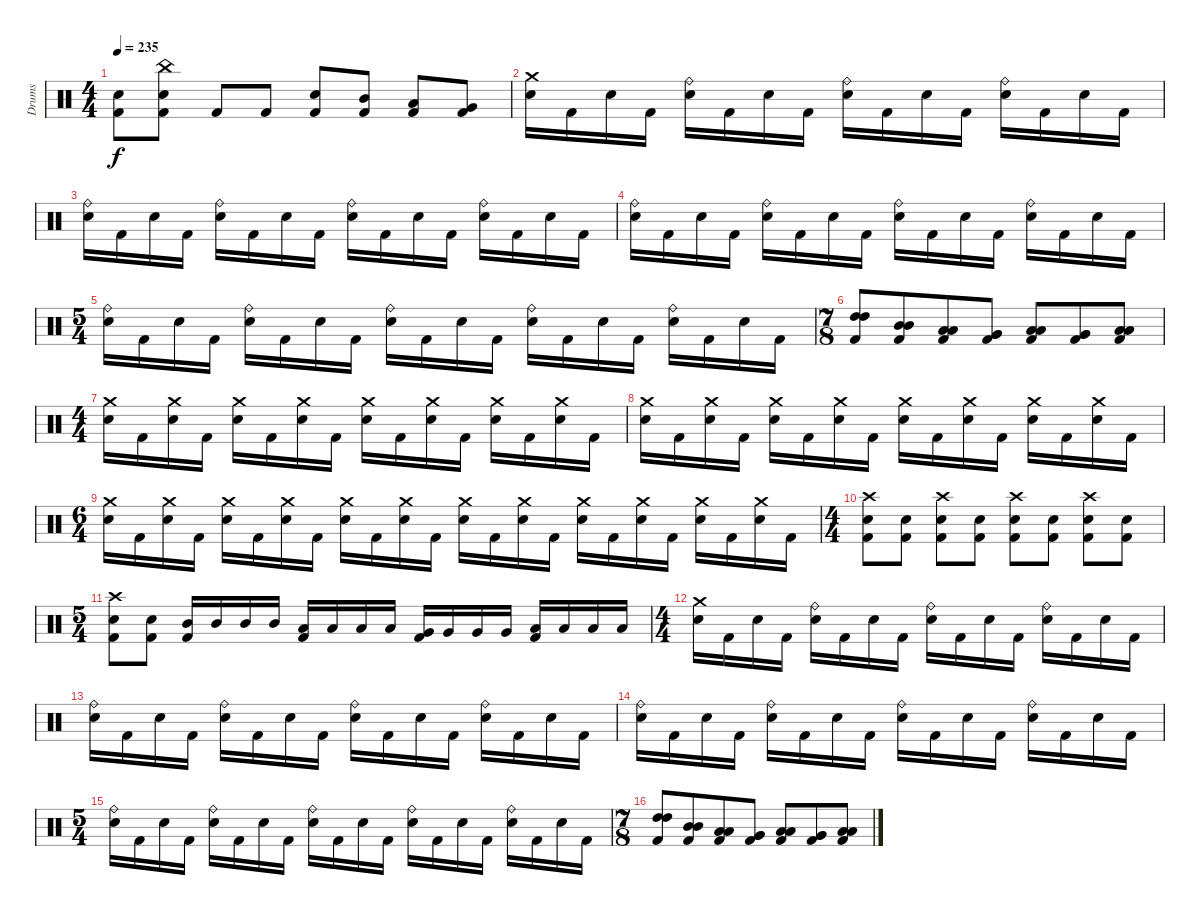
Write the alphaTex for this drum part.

\track ("Drums" "Drums") {instrument percussion}
\staff {score}
\articulation defaults
\ts (4 4)
\tempo 235
\clef neutral
\ks c
("Electric Snare (hit)" "Kick (hit) 2").8{dy f} ("China (hit)" "Electric Snare (hit)" "Kick (hit) 2").8 "Kick (hit) 2".8 "Kick (hit) 2".8 ("Electric Snare (hit)" "Kick (hit) 2").8 ("Mid Tom (hit)" "Kick (hit) 2").8 ("Low Tom (hit)" "Kick (hit) 2").8 ("Very Low Tom (hit)" "Kick (hit) 2").8 |
("Crash medium (hit)" "Electric Snare (hit)").16 "Kick (hit) 2".16 "Electric Snare (hit)".16 "Kick (hit) 2".16 ("Ride (bell)" "Electric Snare (hit)").16 "Kick (hit) 2".16 "Electric Snare (hit)".16 "Kick (hit) 2".16 ("Ride (bell)" "Electric Snare (hit)").16 "Kick (hit) 2".16 "Electric Snare (hit)".16 "Kick (hit) 2".16 ("Ride (bell)" "Electric Snare (hit)").16 "Kick (hit) 2".16 "Electric Snare (hit)".16 "Kick (hit) 2".16 |
("Ride (bell)" "Electric Snare (hit)").16 "Kick (hit) 2".16 "Electric Snare (hit)".16 "Kick (hit) 2".16 ("Ride (bell)" "Electric Snare (hit)").16 "Kick (hit) 2".16 "Electric Snare (hit)".16 "Kick (hit) 2".16 ("Ride (bell)" "Electric Snare (hit)").16 "Kick (hit) 2".16 "Electric Snare (hit)".16 "Kick (hit) 2".16 ("Ride (bell)" "Electric Snare (hit)").16 "Kick (hit) 2".16 "Electric Snare (hit)".16 "Kick (hit) 2".16 |
("Ride (bell)" "Electric Snare (hit)").16 "Kick (hit) 2".16 "Electric Snare (hit)".16 "Kick (hit) 2".16 ("Ride (bell)" "Electric Snare (hit)").16 "Kick (hit) 2".16 "Electric Snare (hit)".16 "Kick (hit) 2".16 ("Ride (bell)" "Electric Snare (hit)").16 "Kick (hit) 2".16 "Electric Snare (hit)".16 "Kick (hit) 2".16 ("Ride (bell)" "Electric Snare (hit)").16 "Kick (hit) 2".16 "Electric Snare (hit)".16 "Kick (hit) 2".16 |
\ts (5 4)
("Ride (bell)" "Electric Snare (hit)").16 "Kick (hit) 2".16 "Electric Snare (hit)".16 "Kick (hit) 2".16 ("Ride (bell)" "Electric Snare (hit)").16 "Kick (hit) 2".16 "Electric Snare (hit)".16 "Kick (hit) 2".16 ("Ride (bell)" "Electric Snare (hit)").16 "Kick (hit) 2".16 "Electric Snare (hit)".16 "Kick (hit) 2".16 ("Ride (bell)" "Electric Snare (hit)").16 "Kick (hit) 2".16 "Electric Snare (hit)".16 "Kick (hit) 2".16 ("Ride (bell)" "Electric Snare (hit)").16 "Kick (hit) 2".16 "Electric Snare (hit)".16 "Kick (hit) 2".16 |
\ts (7 8)
("High Tom (hit)" "High Tom (hit)" "Kick (hit) 2").8 ("Mid Tom (hit)" "Mid Tom (hit)" "Kick (hit) 2").8 ("Low Tom (hit)" "Low Tom (hit)" "Kick (hit) 2").8 ("Very Low Tom (hit)" "Very Low Tom (hit)" "Kick (hit) 2").8 ("Low Tom (hit)" "Low Tom (hit)" "Kick (hit) 2").8 ("Very Low Tom (hit)" "Very Low Tom (hit)" "Kick (hit) 2").8 ("Low Floor Tom (hit)" "Low Floor Tom (hit)" "Kick (hit) 2").8 |
\ts (4 4)
("Crash medium (hit)" "Electric Snare (hit)").16 "Kick (hit) 2".16 ("Crash medium (hit)" "Electric Snare (hit)").16 "Kick (hit) 2".16 ("Crash medium (hit)" "Electric Snare (hit)").16 "Kick (hit) 2".16 ("Crash medium (hit)" "Electric Snare (hit)").16 "Kick (hit) 2".16 ("Crash medium (hit)" "Electric Snare (hit)").16 "Kick (hit) 2".16 ("Crash medium (hit)" "Electric Snare (hit)").16 "Kick (hit) 2".16 ("Crash medium (hit)" "Electric Snare (hit)").16 "Kick (hit) 2".16 ("Crash medium (hit)" "Electric Snare (hit)").16 "Kick (hit) 2".16 |
("Crash medium (hit)" "Electric Snare (hit)").16 "Kick (hit) 2".16 ("Crash medium (hit)" "Electric Snare (hit)").16 "Kick (hit) 2".16 ("Crash medium (hit)" "Electric Snare (hit)").16 "Kick (hit) 2".16 ("Crash medium (hit)" "Electric Snare (hit)").16 "Kick (hit) 2".16 ("Crash medium (hit)" "Electric Snare (hit)").16 "Kick (hit) 2".16 ("Crash medium (hit)" "Electric Snare (hit)").16 "Kick (hit) 2".16 ("Crash medium (hit)" "Electric Snare (hit)").16 "Kick (hit) 2".16 ("Crash medium (hit)" "Electric Snare (hit)").16 "Kick (hit) 2".16 |
\ts (6 4)
("Crash medium (hit)" "Electric Snare (hit)").16 "Kick (hit) 2".16 ("Crash medium (hit)" "Electric Snare (hit)").16 "Kick (hit) 2".16 ("Crash medium (hit)" "Electric Snare (hit)").16 "Kick (hit) 2".16 ("Crash medium (hit)" "Electric Snare (hit)").16 "Kick (hit) 2".16 ("Crash medium (hit)" "Electric Snare (hit)").16 "Kick (hit) 2".16 ("Crash medium (hit)" "Electric Snare (hit)").16 "Kick (hit) 2".16 ("Crash medium (hit)" "Electric Snare (hit)").16 "Kick (hit) 2".16 ("Crash medium (hit)" "Electric Snare (hit)").16 "Kick (hit) 2".16 ("Crash medium (hit)" "Electric Snare (hit)").16 "Kick (hit) 2".16 ("Crash medium (hit)" "Electric Snare (hit)").16 "Kick (hit) 2".16 ("Crash medium (hit)" "Electric Snare (hit)").16 "Kick (hit) 2".16 ("Crash medium (hit)" "Electric Snare (hit)").16 "Kick (hit) 2".16 |
\ts (4 4)
("Crash high (hit)" "Electric Snare (hit)" "Kick (hit) 2").8 ("Electric Snare (hit)" "Kick (hit) 2").8 ("Crash high (hit)" "Electric Snare (hit)" "Kick (hit) 2").8 ("Electric Snare (hit)" "Kick (hit) 2").8 ("Crash high (hit)" "Electric Snare (hit)" "Kick (hit) 2").8 ("Electric Snare (hit)" "Kick (hit) 2").8 ("Crash high (hit)" "Electric Snare (hit)" "Kick (hit) 2").8 ("Electric Snare (hit)" "Kick (hit) 2").8 |
\ts (5 4)
("Crash high (hit)" "Electric Snare (hit)" "Kick (hit) 2").8 ("Electric Snare (hit)" "Kick (hit) 2").8 ("Mid Tom (hit)" "Kick (hit) 2").16 "Mid Tom (hit)".16 "Mid Tom (hit)".16 "Mid Tom (hit)".16 ("Low Tom (hit)" "Kick (hit) 2").16 "Low Tom (hit)".16 "Low Tom (hit)".16 "Low Tom (hit)".16 ("Very Low Tom (hit)" "Kick (hit) 2").16 "Very Low Tom (hit)".16 "Very Low Tom (hit)".16 "Very Low Tom (hit)".16 ("Low Floor Tom (hit)" "Kick (hit) 2").16 "Low Floor Tom (hit)".16 "Low Floor Tom (hit)".16 "Low Floor Tom (hit)".16 |
\ts (4 4)
("Crash medium (hit)" "Electric Snare (hit)").16 "Kick (hit) 2".16 "Electric Snare (hit)".16 "Kick (hit) 2".16 ("Ride (bell)" "Electric Snare (hit)").16 "Kick (hit) 2".16 "Electric Snare (hit)".16 "Kick (hit) 2".16 ("Ride (bell)" "Electric Snare (hit)").16 "Kick (hit) 2".16 "Electric Snare (hit)".16 "Kick (hit) 2".16 ("Ride (bell)" "Electric Snare (hit)").16 "Kick (hit) 2".16 "Electric Snare (hit)".16 "Kick (hit) 2".16 |
("Ride (bell)" "Electric Snare (hit)").16 "Kick (hit) 2".16 "Electric Snare (hit)".16 "Kick (hit) 2".16 ("Ride (bell)" "Electric Snare (hit)").16 "Kick (hit) 2".16 "Electric Snare (hit)".16 "Kick (hit) 2".16 ("Ride (bell)" "Electric Snare (hit)").16 "Kick (hit) 2".16 "Electric Snare (hit)".16 "Kick (hit) 2".16 ("Ride (bell)" "Electric Snare (hit)").16 "Kick (hit) 2".16 "Electric Snare (hit)".16 "Kick (hit) 2".16 |
("Ride (bell)" "Electric Snare (hit)").16 "Kick (hit) 2".16 "Electric Snare (hit)".16 "Kick (hit) 2".16 ("Ride (bell)" "Electric Snare (hit)").16 "Kick (hit) 2".16 "Electric Snare (hit)".16 "Kick (hit) 2".16 ("Ride (bell)" "Electric Snare (hit)").16 "Kick (hit) 2".16 "Electric Snare (hit)".16 "Kick (hit) 2".16 ("Ride (bell)" "Electric Snare (hit)").16 "Kick (hit) 2".16 "Electric Snare (hit)".16 "Kick (hit) 2".16 |
\ts (5 4)
("Ride (bell)" "Electric Snare (hit)").16 "Kick (hit) 2".16 "Electric Snare (hit)".16 "Kick (hit) 2".16 ("Ride (bell)" "Electric Snare (hit)").16 "Kick (hit) 2".16 "Electric Snare (hit)".16 "Kick (hit) 2".16 ("Ride (bell)" "Electric Snare (hit)").16 "Kick (hit) 2".16 "Electric Snare (hit)".16 "Kick (hit) 2".16 ("Ride (bell)" "Electric Snare (hit)").16 "Kick (hit) 2".16 "Electric Snare (hit)".16 "Kick (hit) 2".16 ("Ride (bell)" "Electric Snare (hit)").16 "Kick (hit) 2".16 "Electric Snare (hit)".16 "Kick (hit) 2".16 |
\ts (7 8)
("High Tom (hit)" "High Tom (hit)" "Kick (hit) 2").8 ("Mid Tom (hit)" "Mid Tom (hit)" "Kick (hit) 2").8 ("Low Tom (hit)" "Low Tom (hit)" "Kick (hit) 2").8 ("Very Low Tom (hit)" "Very Low Tom (hit)" "Kick (hit) 2").8 ("Low Tom (hit)" "Low Tom (hit)" "Kick (hit) 2").8 ("Very Low Tom (hit)" "Very Low Tom (hit)" "Kick (hit) 2").8 ("Low Floor Tom (hit)" "Low Floor Tom (hit)" "Kick (hit) 2").8
